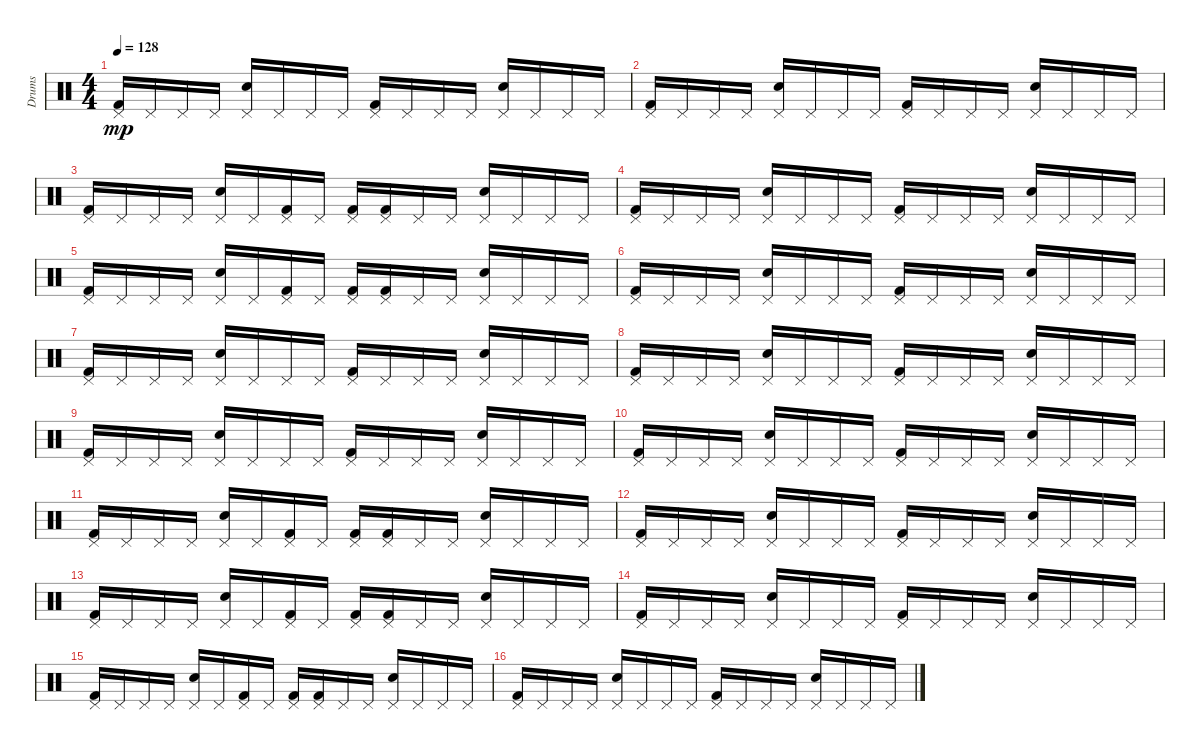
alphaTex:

\track ("Drums" "Drums") {instrument percussion}
\staff {score}
\articulation defaults
\ts (4 4)
\tempo 128
\clef neutral
\ks c
("Pedal Hi-Hat (hit)" "Kick (hit) 2").16{dy mp} "Pedal Hi-Hat (hit)".16 "Pedal Hi-Hat (hit)".16 "Pedal Hi-Hat (hit)".16 ("Electric Snare (hit)" "Pedal Hi-Hat (hit)").16 "Pedal Hi-Hat (hit)".16 "Pedal Hi-Hat (hit)".16 "Pedal Hi-Hat (hit)".16 ("Kick (hit) 2" "Pedal Hi-Hat (hit)").16 "Pedal Hi-Hat (hit)".16 "Pedal Hi-Hat (hit)".16 "Pedal Hi-Hat (hit)".16 ("Electric Snare (hit)" "Pedal Hi-Hat (hit)").16 "Pedal Hi-Hat (hit)".16 "Pedal Hi-Hat (hit)".16 "Pedal Hi-Hat (hit)".16 |
("Kick (hit) 2" "Pedal Hi-Hat (hit)").16 "Pedal Hi-Hat (hit)".16 "Pedal Hi-Hat (hit)".16 "Pedal Hi-Hat (hit)".16 ("Pedal Hi-Hat (hit)" "Electric Snare (hit)").16 "Pedal Hi-Hat (hit)".16 "Pedal Hi-Hat (hit)".16 "Pedal Hi-Hat (hit)".16 ("Pedal Hi-Hat (hit)" "Kick (hit) 2").16 "Pedal Hi-Hat (hit)".16 "Pedal Hi-Hat (hit)".16 "Pedal Hi-Hat (hit)".16 ("Pedal Hi-Hat (hit)" "Electric Snare (hit)").16 "Pedal Hi-Hat (hit)".16 "Pedal Hi-Hat (hit)".16 "Pedal Hi-Hat (hit)".16 |
("Kick (hit) 2" "Pedal Hi-Hat (hit)").16 "Pedal Hi-Hat (hit)".16 "Pedal Hi-Hat (hit)".16 "Pedal Hi-Hat (hit)".16 ("Pedal Hi-Hat (hit)" "Electric Snare (hit)").16 "Pedal Hi-Hat (hit)".16 ("Kick (hit) 2" "Pedal Hi-Hat (hit)").16 "Pedal Hi-Hat (hit)".16 ("Pedal Hi-Hat (hit)" "Kick (hit) 2").16 ("Kick (hit) 2" "Pedal Hi-Hat (hit)").16 "Pedal Hi-Hat (hit)".16 "Pedal Hi-Hat (hit)".16 ("Electric Snare (hit)" "Pedal Hi-Hat (hit)").16 "Pedal Hi-Hat (hit)".16 "Pedal Hi-Hat (hit)".16 "Pedal Hi-Hat (hit)".16 |
("Kick (hit) 2" "Pedal Hi-Hat (hit)").16 "Pedal Hi-Hat (hit)".16 "Pedal Hi-Hat (hit)".16 "Pedal Hi-Hat (hit)".16 ("Pedal Hi-Hat (hit)" "Electric Snare (hit)").16 "Pedal Hi-Hat (hit)".16 "Pedal Hi-Hat (hit)".16 "Pedal Hi-Hat (hit)".16 ("Kick (hit) 2" "Pedal Hi-Hat (hit)").16 "Pedal Hi-Hat (hit)".16 "Pedal Hi-Hat (hit)".16 "Pedal Hi-Hat (hit)".16 ("Pedal Hi-Hat (hit)" "Electric Snare (hit)").16 "Pedal Hi-Hat (hit)".16 "Pedal Hi-Hat (hit)".16 "Pedal Hi-Hat (hit)".16 |
("Pedal Hi-Hat (hit)" "Kick (hit) 2").16 "Pedal Hi-Hat (hit)".16 "Pedal Hi-Hat (hit)".16 "Pedal Hi-Hat (hit)".16 ("Electric Snare (hit)" "Pedal Hi-Hat (hit)").16 "Pedal Hi-Hat (hit)".16 ("Kick (hit) 2" "Pedal Hi-Hat (hit)").16 "Pedal Hi-Hat (hit)".16 ("Kick (hit) 2" "Pedal Hi-Hat (hit)").16 ("Pedal Hi-Hat (hit)" "Kick (hit) 2").16 "Pedal Hi-Hat (hit)".16 "Pedal Hi-Hat (hit)".16 ("Electric Snare (hit)" "Pedal Hi-Hat (hit)").16 "Pedal Hi-Hat (hit)".16 "Pedal Hi-Hat (hit)".16 "Pedal Hi-Hat (hit)".16 |
("Kick (hit) 2" "Pedal Hi-Hat (hit)").16 "Pedal Hi-Hat (hit)".16 "Pedal Hi-Hat (hit)".16 "Pedal Hi-Hat (hit)".16 ("Pedal Hi-Hat (hit)" "Electric Snare (hit)").16 "Pedal Hi-Hat (hit)".16 "Pedal Hi-Hat (hit)".16 "Pedal Hi-Hat (hit)".16 ("Kick (hit) 2" "Pedal Hi-Hat (hit)").16 "Pedal Hi-Hat (hit)".16 "Pedal Hi-Hat (hit)".16 "Pedal Hi-Hat (hit)".16 ("Electric Snare (hit)" "Pedal Hi-Hat (hit)").16 "Pedal Hi-Hat (hit)".16 "Pedal Hi-Hat (hit)".16 "Pedal Hi-Hat (hit)".16 |
("Pedal Hi-Hat (hit)" "Kick (hit) 2").16 "Pedal Hi-Hat (hit)".16 "Pedal Hi-Hat (hit)".16 "Pedal Hi-Hat (hit)".16 ("Electric Snare (hit)" "Pedal Hi-Hat (hit)").16 "Pedal Hi-Hat (hit)".16 "Pedal Hi-Hat (hit)".16 "Pedal Hi-Hat (hit)".16 ("Pedal Hi-Hat (hit)" "Kick (hit) 2").16 "Pedal Hi-Hat (hit)".16 "Pedal Hi-Hat (hit)".16 "Pedal Hi-Hat (hit)".16 ("Electric Snare (hit)" "Pedal Hi-Hat (hit)").16 "Pedal Hi-Hat (hit)".16 "Pedal Hi-Hat (hit)".16 "Pedal Hi-Hat (hit)".16 |
("Pedal Hi-Hat (hit)" "Kick (hit) 2").16 "Pedal Hi-Hat (hit)".16 "Pedal Hi-Hat (hit)".16 "Pedal Hi-Hat (hit)".16 ("Electric Snare (hit)" "Pedal Hi-Hat (hit)").16 "Pedal Hi-Hat (hit)".16 "Pedal Hi-Hat (hit)".16 "Pedal Hi-Hat (hit)".16 ("Pedal Hi-Hat (hit)" "Kick (hit) 2").16 "Pedal Hi-Hat (hit)".16 "Pedal Hi-Hat (hit)".16 "Pedal Hi-Hat (hit)".16 ("Pedal Hi-Hat (hit)" "Electric Snare (hit)").16 "Pedal Hi-Hat (hit)".16 "Pedal Hi-Hat (hit)".16 "Pedal Hi-Hat (hit)".16 |
("Pedal Hi-Hat (hit)" "Kick (hit) 2").16 "Pedal Hi-Hat (hit)".16 "Pedal Hi-Hat (hit)".16 "Pedal Hi-Hat (hit)".16 ("Pedal Hi-Hat (hit)" "Electric Snare (hit)").16 "Pedal Hi-Hat (hit)".16 "Pedal Hi-Hat (hit)".16 "Pedal Hi-Hat (hit)".16 ("Kick (hit) 2" "Pedal Hi-Hat (hit)").16 "Pedal Hi-Hat (hit)".16 "Pedal Hi-Hat (hit)".16 "Pedal Hi-Hat (hit)".16 ("Electric Snare (hit)" "Pedal Hi-Hat (hit)").16 "Pedal Hi-Hat (hit)".16 "Pedal Hi-Hat (hit)".16 "Pedal Hi-Hat (hit)".16 |
("Pedal Hi-Hat (hit)" "Kick (hit) 2").16 "Pedal Hi-Hat (hit)".16 "Pedal Hi-Hat (hit)".16 "Pedal Hi-Hat (hit)".16 ("Pedal Hi-Hat (hit)" "Electric Snare (hit)").16 "Pedal Hi-Hat (hit)".16 "Pedal Hi-Hat (hit)".16 "Pedal Hi-Hat (hit)".16 ("Kick (hit) 2" "Pedal Hi-Hat (hit)").16 "Pedal Hi-Hat (hit)".16 "Pedal Hi-Hat (hit)".16 "Pedal Hi-Hat (hit)".16 ("Electric Snare (hit)" "Pedal Hi-Hat (hit)").16 "Pedal Hi-Hat (hit)".16 "Pedal Hi-Hat (hit)".16 "Pedal Hi-Hat (hit)".16 |
("Pedal Hi-Hat (hit)" "Kick (hit) 2").16 "Pedal Hi-Hat (hit)".16 "Pedal Hi-Hat (hit)".16 "Pedal Hi-Hat (hit)".16 ("Pedal Hi-Hat (hit)" "Electric Snare (hit)").16 "Pedal Hi-Hat (hit)".16 ("Kick (hit) 2" "Pedal Hi-Hat (hit)").16 "Pedal Hi-Hat (hit)".16 ("Pedal Hi-Hat (hit)" "Kick (hit) 2").16 ("Pedal Hi-Hat (hit)" "Kick (hit) 2").16 "Pedal Hi-Hat (hit)".16 "Pedal Hi-Hat (hit)".16 ("Pedal Hi-Hat (hit)" "Electric Snare (hit)").16 "Pedal Hi-Hat (hit)".16 "Pedal Hi-Hat (hit)".16 "Pedal Hi-Hat (hit)".16 |
("Kick (hit) 2" "Pedal Hi-Hat (hit)").16 "Pedal Hi-Hat (hit)".16 "Pedal Hi-Hat (hit)".16 "Pedal Hi-Hat (hit)".16 ("Pedal Hi-Hat (hit)" "Electric Snare (hit)").16 "Pedal Hi-Hat (hit)".16 "Pedal Hi-Hat (hit)".16 "Pedal Hi-Hat (hit)".16 ("Pedal Hi-Hat (hit)" "Kick (hit) 2").16 "Pedal Hi-Hat (hit)".16 "Pedal Hi-Hat (hit)".16 "Pedal Hi-Hat (hit)".16 ("Pedal Hi-Hat (hit)" "Electric Snare (hit)").16 "Pedal Hi-Hat (hit)".16 "Pedal Hi-Hat (hit)".16 "Pedal Hi-Hat (hit)".16 |
("Kick (hit) 2" "Pedal Hi-Hat (hit)").16 "Pedal Hi-Hat (hit)".16 "Pedal Hi-Hat (hit)".16 "Pedal Hi-Hat (hit)".16 ("Pedal Hi-Hat (hit)" "Electric Snare (hit)").16 "Pedal Hi-Hat (hit)".16 ("Kick (hit) 2" "Pedal Hi-Hat (hit)").16 "Pedal Hi-Hat (hit)".16 ("Pedal Hi-Hat (hit)" "Kick (hit) 2").16 ("Pedal Hi-Hat (hit)" "Kick (hit) 2").16 "Pedal Hi-Hat (hit)".16 "Pedal Hi-Hat (hit)".16 ("Pedal Hi-Hat (hit)" "Electric Snare (hit)").16 "Pedal Hi-Hat (hit)".16 "Pedal Hi-Hat (hit)".16 "Pedal Hi-Hat (hit)".16 |
("Pedal Hi-Hat (hit)" "Kick (hit) 2").16 "Pedal Hi-Hat (hit)".16 "Pedal Hi-Hat (hit)".16 "Pedal Hi-Hat (hit)".16 ("Pedal Hi-Hat (hit)" "Electric Snare (hit)").16 "Pedal Hi-Hat (hit)".16 "Pedal Hi-Hat (hit)".16 "Pedal Hi-Hat (hit)".16 ("Pedal Hi-Hat (hit)" "Kick (hit) 2").16 "Pedal Hi-Hat (hit)".16 "Pedal Hi-Hat (hit)".16 "Pedal Hi-Hat (hit)".16 ("Electric Snare (hit)" "Pedal Hi-Hat (hit)").16 "Pedal Hi-Hat (hit)".16 "Pedal Hi-Hat (hit)".16 "Pedal Hi-Hat (hit)".16 |
("Pedal Hi-Hat (hit)" "Kick (hit) 2").16 "Pedal Hi-Hat (hit)".16 "Pedal Hi-Hat (hit)".16 "Pedal Hi-Hat (hit)".16 ("Pedal Hi-Hat (hit)" "Electric Snare (hit)").16 "Pedal Hi-Hat (hit)".16 ("Kick (hit) 2" "Pedal Hi-Hat (hit)").16 "Pedal Hi-Hat (hit)".16 ("Kick (hit) 2" "Pedal Hi-Hat (hit)").16 ("Pedal Hi-Hat (hit)" "Kick (hit) 2").16 "Pedal Hi-Hat (hit)".16 "Pedal Hi-Hat (hit)".16 ("Pedal Hi-Hat (hit)" "Electric Snare (hit)").16 "Pedal Hi-Hat (hit)".16 "Pedal Hi-Hat (hit)".16 "Pedal Hi-Hat (hit)".16 |
("Kick (hit) 2" "Pedal Hi-Hat (hit)").16 "Pedal Hi-Hat (hit)".16 "Pedal Hi-Hat (hit)".16 "Pedal Hi-Hat (hit)".16 ("Pedal Hi-Hat (hit)" "Electric Snare (hit)").16 "Pedal Hi-Hat (hit)".16 "Pedal Hi-Hat (hit)".16 "Pedal Hi-Hat (hit)".16 ("Pedal Hi-Hat (hit)" "Kick (hit) 2").16 "Pedal Hi-Hat (hit)".16 "Pedal Hi-Hat (hit)".16 "Pedal Hi-Hat (hit)".16 ("Pedal Hi-Hat (hit)" "Electric Snare (hit)").16 "Pedal Hi-Hat (hit)".16 "Pedal Hi-Hat (hit)".16 "Pedal Hi-Hat (hit)".16
